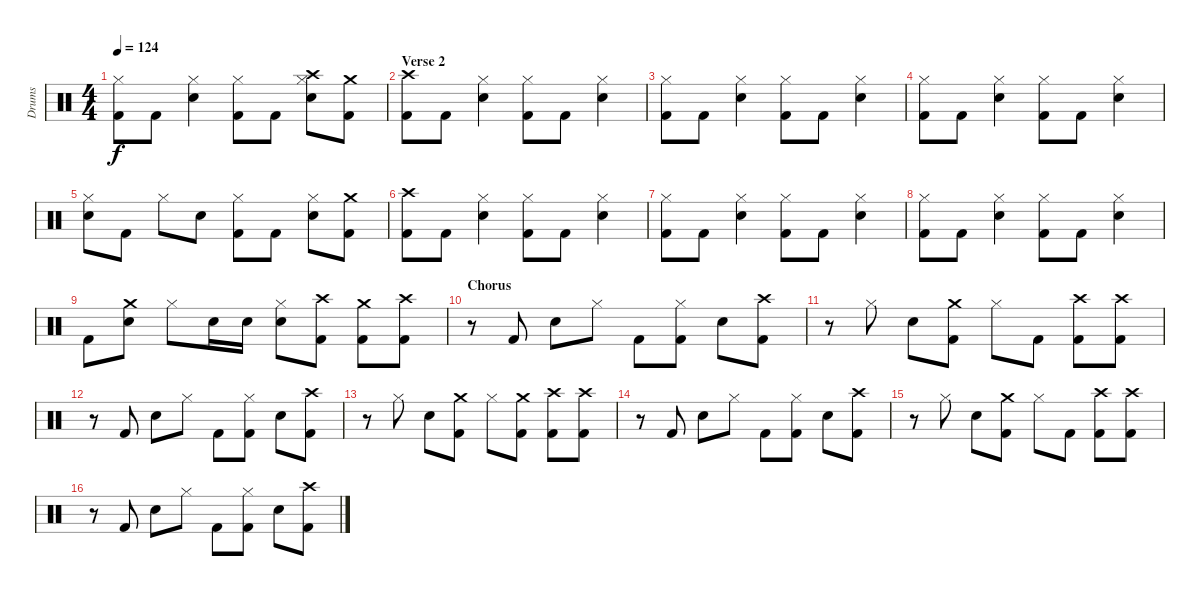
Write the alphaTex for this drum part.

\track ("Drums" "Drums") {instrument percussion}
\staff {score}
\articulation defaults
\ts (4 4)
\tempo 124
\clef neutral
\ks c
("Kick (hit) 2" "Hi-Hat (closed)").8{dy f} "Kick (hit) 2".8 ("Snare (hit) 2" "Hi-Hat (closed)").4 ("Kick (hit) 2" "Hi-Hat (closed)").8 "Kick (hit) 2".8 ("Snare (hit) 2" "Hi-Hat (closed)" "Crash high (hit)").8 ("Kick (hit) 2" "Crash medium (hit)").8 |
\section ("" "Verse 2")
("Kick (hit) 2" "Crash high (hit)").8 "Kick (hit) 2".8 ("Snare (hit) 2" "Hi-Hat (closed)").4 ("Kick (hit) 2" "Hi-Hat (closed)").8 "Kick (hit) 2".8 ("Snare (hit) 2" "Hi-Hat (closed)").4 |
("Kick (hit) 2" "Hi-Hat (closed)").8 "Kick (hit) 2".8 ("Snare (hit) 2" "Hi-Hat (closed)").4 ("Kick (hit) 2" "Hi-Hat (closed)").8 "Kick (hit) 2".8 ("Snare (hit) 2" "Hi-Hat (closed)").4 |
("Kick (hit) 2" "Hi-Hat (closed)").8 "Kick (hit) 2".8 ("Snare (hit) 2" "Hi-Hat (closed)").4 ("Kick (hit) 2" "Hi-Hat (closed)").8 "Kick (hit) 2".8 ("Snare (hit) 2" "Hi-Hat (closed)").4 |
("Snare (hit) 2" "Hi-Hat (closed)").8 "Kick (hit) 2".8 "Hi-Hat (closed)".8 "Snare (hit) 2".8 ("Kick (hit) 2" "Hi-Hat (closed)").8 "Kick (hit) 2".8 ("Snare (hit) 2" "Hi-Hat (closed)").8 ("Kick (hit) 2" "Crash medium (hit)").8 |
("Kick (hit) 2" "Crash high (hit)").8 "Kick (hit) 2".8 ("Snare (hit) 2" "Hi-Hat (closed)").4 ("Kick (hit) 2" "Hi-Hat (closed)").8 "Kick (hit) 2".8 ("Snare (hit) 2" "Hi-Hat (closed)").4 |
("Kick (hit) 2" "Hi-Hat (closed)").8 "Kick (hit) 2".8 ("Snare (hit) 2" "Hi-Hat (closed)").4 ("Kick (hit) 2" "Hi-Hat (closed)").8 "Kick (hit) 2".8 ("Snare (hit) 2" "Hi-Hat (closed)").4 |
("Kick (hit) 2" "Hi-Hat (closed)").8 "Kick (hit) 2".8 ("Snare (hit) 2" "Hi-Hat (closed)").4 ("Kick (hit) 2" "Hi-Hat (closed)").8 "Kick (hit) 2".8 ("Snare (hit) 2" "Hi-Hat (closed)").4 |
"Kick (hit) 2".8 ("Snare (hit) 2" "Crash medium (hit)").8 "Hi-Hat (closed)".8 "Snare (hit) 2".16 "Snare (hit) 2".16 ("Snare (hit) 2" "Hi-Hat (closed)").8 ("Kick (hit) 2" "Crash high (hit)").8 ("Kick (hit) 2" "Crash medium (hit)").8 ("Kick (hit) 2" "Crash high (hit)").8 |
\section ("" "Chorus")
r.8 "Kick (hit) 2".8 "Snare (hit) 2".8 "Hi-Hat (closed)".8 "Kick (hit) 2".8 ("Kick (hit) 2" "Hi-Hat (closed)").8 "Snare (hit) 2".8 ("Kick (hit) 2" "Crash high (hit)").8 |
r.8 "Hi-Hat (closed)".8 "Snare (hit) 2".8 ("Kick (hit) 2" "Crash medium (hit)").8 "Hi-Hat (closed)".8 "Kick (hit) 2".8 ("Kick (hit) 2" "Crash high (hit)").8 ("Kick (hit) 2" "Crash high (hit)").8 |
r.8 "Kick (hit) 2".8 "Snare (hit) 2".8 "Hi-Hat (closed)".8 "Kick (hit) 2".8 ("Kick (hit) 2" "Hi-Hat (closed)").8 "Snare (hit) 2".8 ("Kick (hit) 2" "Crash high (hit)").8 |
r.8 "Hi-Hat (closed)".8 "Snare (hit) 2".8 ("Kick (hit) 2" "Crash medium (hit)").8 "Hi-Hat (closed)".8 ("Kick (hit) 2" "Crash medium (hit)").8 ("Kick (hit) 2" "Crash high (hit)").8 ("Kick (hit) 2" "Crash high (hit)").8 |
r.8 "Kick (hit) 2".8 "Snare (hit) 2".8 "Hi-Hat (closed)".8 "Kick (hit) 2".8 ("Kick (hit) 2" "Hi-Hat (closed)").8 "Snare (hit) 2".8 ("Kick (hit) 2" "Crash high (hit)").8 |
r.8 "Hi-Hat (closed)".8 "Snare (hit) 2".8 ("Kick (hit) 2" "Crash medium (hit)").8 "Hi-Hat (closed)".8 "Kick (hit) 2".8 ("Kick (hit) 2" "Crash high (hit)").8 ("Kick (hit) 2" "Crash high (hit)").8 |
r.8 "Kick (hit) 2".8 "Snare (hit) 2".8 "Hi-Hat (closed)".8 "Kick (hit) 2".8 ("Kick (hit) 2" "Hi-Hat (closed)").8 "Snare (hit) 2".8 ("Kick (hit) 2" "Crash high (hit)").8
